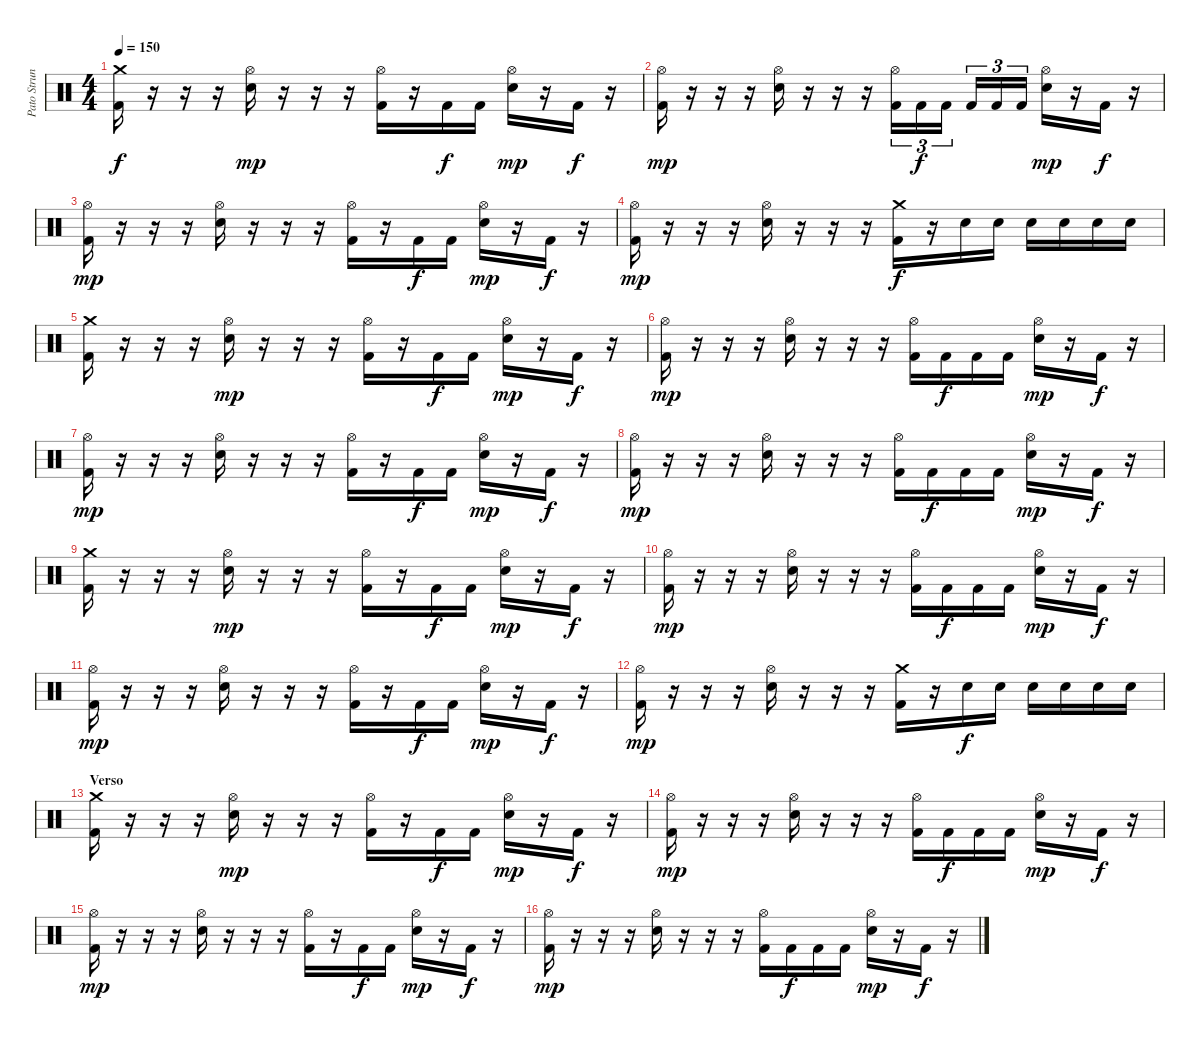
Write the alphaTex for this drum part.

\track ("Pato Strunz" "Pato Strun") {instrument percussion}
\staff {score}
\articulation defaults
\ts (4 4)
\tempo 150
\clef neutral
\ks c
("Crash medium (hit)" "Kick (hit) 2").16{dy f} r.16 r.16 r.16 ("Hi-Hat (open)" "Electric Snare (hit)").16{dy mp} r.16 r.16 r.16 ("Hi-Hat (open)" "Kick (hit) 2").16 r.16 "Kick (hit) 2".16{dy f} "Kick (hit) 2".16 ("Hi-Hat (open)" "Electric Snare (hit)").16{dy mp} r.16 "Kick (hit) 2".16{dy f} r.16 |
("Hi-Hat (open)" "Kick (hit) 2").16{dy mp} r.16 r.16 r.16 ("Hi-Hat (open)" "Electric Snare (hit)").16 r.16 r.16 r.16 ("Hi-Hat (open)" "Kick (hit) 2").16{tu (3 2)} "Kick (hit) 2".16{tu (3 2) dy f} "Kick (hit) 2".16{tu (3 2)} "Kick (hit) 2".16{tu (3 2)} "Kick (hit) 2".16{tu (3 2)} "Kick (hit) 2".16{tu (3 2)} ("Hi-Hat (open)" "Electric Snare (hit)").16{dy mp} r.16 "Kick (hit) 2".16{dy f} r.16 |
("Hi-Hat (open)" "Kick (hit) 2").16{dy mp} r.16 r.16 r.16 ("Hi-Hat (open)" "Electric Snare (hit)").16 r.16 r.16 r.16 ("Hi-Hat (open)" "Kick (hit) 2").16 r.16 "Kick (hit) 2".16{dy f} "Kick (hit) 2".16 ("Hi-Hat (open)" "Electric Snare (hit)").16{dy mp} r.16 "Kick (hit) 2".16{dy f} r.16 |
("Hi-Hat (open)" "Kick (hit) 2").16{dy mp} r.16 r.16 r.16 ("Hi-Hat (open)" "Electric Snare (hit)").16 r.16 r.16 r.16 ("Crash medium (hit)" "Kick (hit) 2").16{dy f} r.16 "Electric Snare (hit)".16 "Electric Snare (hit)".16 "Electric Snare (hit)".16 "Electric Snare (hit)".16 "Electric Snare (hit)".16 "Electric Snare (hit)".16 |
("Crash medium (hit)" "Kick (hit) 2").16 r.16 r.16 r.16 ("Hi-Hat (open)" "Electric Snare (hit)").16{dy mp} r.16 r.16 r.16 ("Hi-Hat (open)" "Kick (hit) 2").16 r.16 "Kick (hit) 2".16{dy f} "Kick (hit) 2".16 ("Hi-Hat (open)" "Electric Snare (hit)").16{dy mp} r.16 "Kick (hit) 2".16{dy f} r.16 |
("Hi-Hat (open)" "Kick (hit) 2").16{dy mp} r.16 r.16 r.16 ("Hi-Hat (open)" "Electric Snare (hit)").16 r.16 r.16 r.16 ("Hi-Hat (open)" "Kick (hit) 2").16 "Kick (hit) 2".16{dy f} "Kick (hit) 2".16 "Kick (hit) 2".16 ("Hi-Hat (open)" "Electric Snare (hit)").16{dy mp} r.16 "Kick (hit) 2".16{dy f} r.16 |
("Hi-Hat (open)" "Kick (hit) 2").16{dy mp} r.16 r.16 r.16 ("Hi-Hat (open)" "Electric Snare (hit)").16 r.16 r.16 r.16 ("Hi-Hat (open)" "Kick (hit) 2").16 r.16 "Kick (hit) 2".16{dy f} "Kick (hit) 2".16 ("Hi-Hat (open)" "Electric Snare (hit)").16{dy mp} r.16 "Kick (hit) 2".16{dy f} r.16 |
("Hi-Hat (open)" "Kick (hit) 2").16{dy mp} r.16 r.16 r.16 ("Hi-Hat (open)" "Electric Snare (hit)").16 r.16 r.16 r.16 ("Hi-Hat (open)" "Kick (hit) 2").16 "Kick (hit) 2".16{dy f} "Kick (hit) 2".16 "Kick (hit) 2".16 ("Hi-Hat (open)" "Electric Snare (hit)").16{dy mp} r.16 "Kick (hit) 2".16{dy f} r.16 |
("Crash medium (hit)" "Kick (hit) 2").16 r.16 r.16 r.16 ("Hi-Hat (open)" "Electric Snare (hit)").16{dy mp} r.16 r.16 r.16 ("Hi-Hat (open)" "Kick (hit) 2").16 r.16 "Kick (hit) 2".16{dy f} "Kick (hit) 2".16 ("Hi-Hat (open)" "Electric Snare (hit)").16{dy mp} r.16 "Kick (hit) 2".16{dy f} r.16 |
("Hi-Hat (open)" "Kick (hit) 2").16{dy mp} r.16 r.16 r.16 ("Hi-Hat (open)" "Electric Snare (hit)").16 r.16 r.16 r.16 ("Hi-Hat (open)" "Kick (hit) 2").16 "Kick (hit) 2".16{dy f} "Kick (hit) 2".16 "Kick (hit) 2".16 ("Hi-Hat (open)" "Electric Snare (hit)").16{dy mp} r.16 "Kick (hit) 2".16{dy f} r.16 |
("Hi-Hat (open)" "Kick (hit) 2").16{dy mp} r.16 r.16 r.16 ("Hi-Hat (open)" "Electric Snare (hit)").16 r.16 r.16 r.16 ("Hi-Hat (open)" "Kick (hit) 2").16 r.16 "Kick (hit) 2".16{dy f} "Kick (hit) 2".16 ("Hi-Hat (open)" "Electric Snare (hit)").16{dy mp} r.16 "Kick (hit) 2".16{dy f} r.16 |
("Hi-Hat (open)" "Kick (hit) 2").16{dy mp} r.16 r.16 r.16 ("Hi-Hat (open)" "Electric Snare (hit)").16 r.16 r.16 r.16 ("Crash medium (hit)" "Kick (hit) 2").16 r.16 "Electric Snare (hit)".16{dy f} "Electric Snare (hit)".16 "Electric Snare (hit)".16 "Electric Snare (hit)".16 "Electric Snare (hit)".16 "Electric Snare (hit)".16 |
\section ("" "Verso")
("Crash medium (hit)" "Kick (hit) 2").16 r.16 r.16 r.16 ("Hi-Hat (open)" "Electric Snare (hit)").16{dy mp} r.16 r.16 r.16 ("Hi-Hat (open)" "Kick (hit) 2").16 r.16 "Kick (hit) 2".16{dy f} "Kick (hit) 2".16 ("Hi-Hat (open)" "Electric Snare (hit)").16{dy mp} r.16 "Kick (hit) 2".16{dy f} r.16 |
("Hi-Hat (open)" "Kick (hit) 2").16{dy mp} r.16 r.16 r.16 ("Hi-Hat (open)" "Electric Snare (hit)").16 r.16 r.16 r.16 ("Hi-Hat (open)" "Kick (hit) 2").16 "Kick (hit) 2".16{dy f} "Kick (hit) 2".16 "Kick (hit) 2".16 ("Hi-Hat (open)" "Electric Snare (hit)").16{dy mp} r.16 "Kick (hit) 2".16{dy f} r.16 |
("Hi-Hat (open)" "Kick (hit) 2").16{dy mp} r.16 r.16 r.16 ("Hi-Hat (open)" "Electric Snare (hit)").16 r.16 r.16 r.16 ("Hi-Hat (open)" "Kick (hit) 2").16 r.16 "Kick (hit) 2".16{dy f} "Kick (hit) 2".16 ("Hi-Hat (open)" "Electric Snare (hit)").16{dy mp} r.16 "Kick (hit) 2".16{dy f} r.16 |
("Hi-Hat (open)" "Kick (hit) 2").16{dy mp} r.16 r.16 r.16 ("Hi-Hat (open)" "Electric Snare (hit)").16 r.16 r.16 r.16 ("Hi-Hat (open)" "Kick (hit) 2").16 "Kick (hit) 2".16{dy f} "Kick (hit) 2".16 "Kick (hit) 2".16 ("Hi-Hat (open)" "Electric Snare (hit)").16{dy mp} r.16 "Kick (hit) 2".16{dy f} r.16
